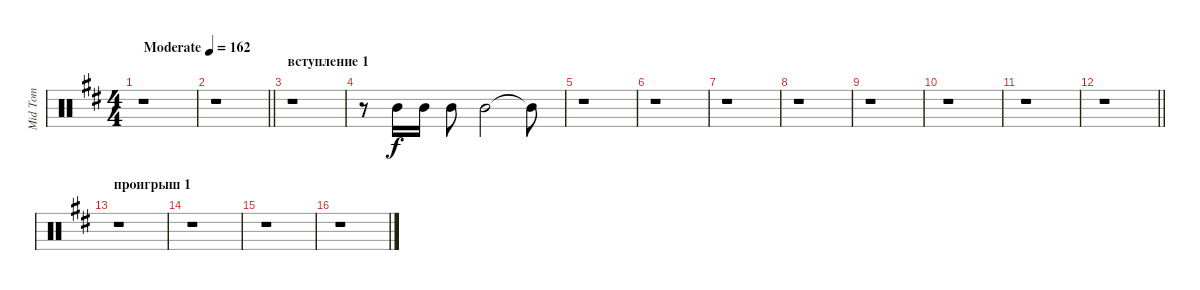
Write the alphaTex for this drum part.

\track ("Mid Tom" "Mid Tom") {instrument percussion}
\staff {score}
\articulation defaults
\ts (4 4)
\tempo (162 "Moderate")
\clef neutral
\ks bminor
r.1{dy f} |
\barLineRight lightlight
r.1 |
\section ("" "вступление 1")
r.1 |
r.8 "Mid Tom (hit)".16 "Mid Tom (hit)".16 "Mid Tom (hit)".8 "Mid Tom (hit)".2 "Mid Tom (hit)"{t}.8 |
r.1 |
r.1 |
r.1 |
r.1 |
r.1 |
r.1 |
r.1 |
\barLineRight lightlight
r.1 |
\section ("" "проигрыш 1")
r.1 |
r.1 |
r.1 |
r.1
